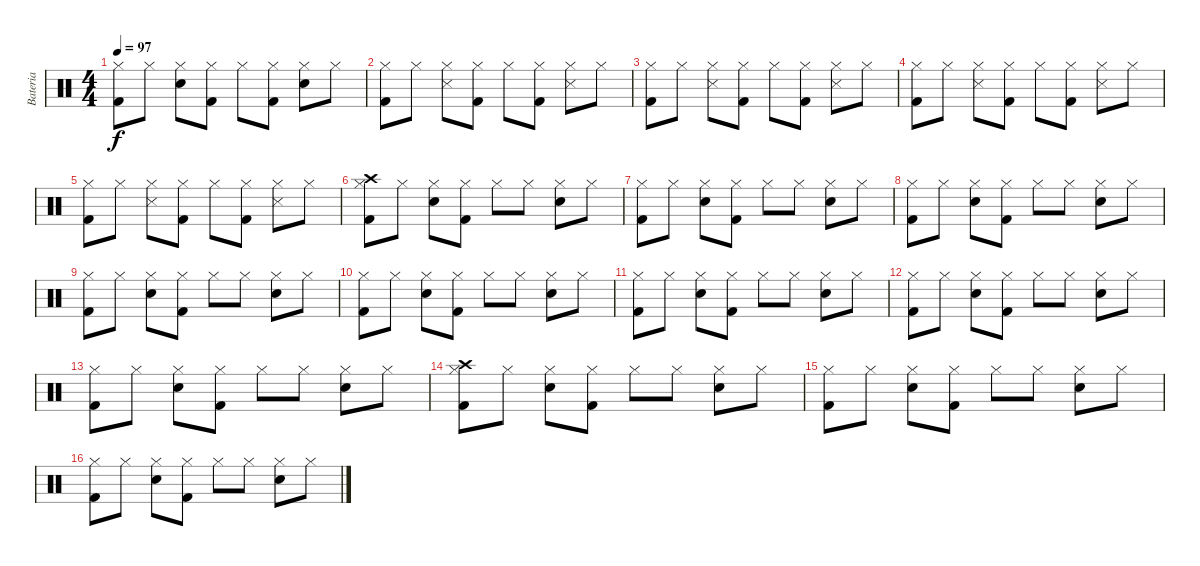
\track ("Bateria" "Bateria") {instrument percussion}
\staff {score}
\articulation defaults
\ts (4 4)
\tempo 97
\clef neutral
\ks c
("Kick (hit) 2" "Hi-Hat (closed)").8{dy f} "Hi-Hat (closed)".8 ("Snare (hit) 2" "Hi-Hat (closed)").8 ("Kick (hit) 2" "Hi-Hat (closed)").8 "Hi-Hat (closed)".8 ("Kick (hit) 2" "Hi-Hat (closed)").8 ("Snare (hit) 2" "Hi-Hat (closed)").8 "Hi-Hat (closed)".8 |
("Kick (hit) 2" "Hi-Hat (closed)").8 "Hi-Hat (closed)".8 ("Snare (side stick) 3" "Hi-Hat (closed)").8 ("Kick (hit) 2" "Hi-Hat (closed)").8 "Hi-Hat (closed)".8 ("Kick (hit) 2" "Hi-Hat (closed)").8 ("Snare (side stick) 3" "Hi-Hat (closed)").8 "Hi-Hat (closed)".8 |
("Kick (hit) 2" "Hi-Hat (closed)").8 "Hi-Hat (closed)".8 ("Snare (side stick) 3" "Hi-Hat (closed)").8 ("Kick (hit) 2" "Hi-Hat (closed)").8 "Hi-Hat (closed)".8 ("Kick (hit) 2" "Hi-Hat (closed)").8 ("Snare (side stick) 3" "Hi-Hat (closed)").8 "Hi-Hat (closed)".8 |
("Kick (hit) 2" "Hi-Hat (closed)").8 "Hi-Hat (closed)".8 ("Snare (side stick) 3" "Hi-Hat (closed)").8 ("Kick (hit) 2" "Hi-Hat (closed)").8 "Hi-Hat (closed)".8 ("Kick (hit) 2" "Hi-Hat (closed)").8 ("Snare (side stick) 3" "Hi-Hat (closed)").8 "Hi-Hat (closed)".8 |
("Kick (hit) 2" "Hi-Hat (closed)").8 "Hi-Hat (closed)".8 ("Snare (side stick) 3" "Hi-Hat (closed)").8 ("Kick (hit) 2" "Hi-Hat (closed)").8 "Hi-Hat (closed)".8 ("Kick (hit) 2" "Hi-Hat (closed)").8 ("Snare (side stick) 3" "Hi-Hat (closed)").8 "Hi-Hat (closed)".8 |
("Kick (hit) 2" "Hi-Hat (closed)" "Crash high (hit)").8 "Hi-Hat (closed)".8 ("Electric Snare (hit)" "Hi-Hat (closed)").8 ("Kick (hit) 2" "Hi-Hat (closed)").8 "Hi-Hat (closed)".8 "Hi-Hat (closed)".8 ("Electric Snare (hit)" "Hi-Hat (closed)").8 "Hi-Hat (closed)".8 |
("Kick (hit) 2" "Hi-Hat (closed)").8 "Hi-Hat (closed)".8 ("Electric Snare (hit)" "Hi-Hat (closed)").8 ("Kick (hit) 2" "Hi-Hat (closed)").8 "Hi-Hat (closed)".8 "Hi-Hat (closed)".8 ("Electric Snare (hit)" "Hi-Hat (closed)").8 "Hi-Hat (closed)".8 |
("Kick (hit) 2" "Hi-Hat (closed)").8 "Hi-Hat (closed)".8 ("Electric Snare (hit)" "Hi-Hat (closed)").8 ("Kick (hit) 2" "Hi-Hat (closed)").8 "Hi-Hat (closed)".8 "Hi-Hat (closed)".8 ("Electric Snare (hit)" "Hi-Hat (closed)").8 "Hi-Hat (closed)".8 |
("Kick (hit) 2" "Hi-Hat (closed)").8 "Hi-Hat (closed)".8 ("Electric Snare (hit)" "Hi-Hat (closed)").8 ("Kick (hit) 2" "Hi-Hat (closed)").8 "Hi-Hat (closed)".8 "Hi-Hat (closed)".8 ("Electric Snare (hit)" "Hi-Hat (closed)").8 "Hi-Hat (closed)".8 |
("Kick (hit) 2" "Hi-Hat (closed)").8 "Hi-Hat (closed)".8 ("Electric Snare (hit)" "Hi-Hat (closed)").8 ("Kick (hit) 2" "Hi-Hat (closed)").8 "Hi-Hat (closed)".8 "Hi-Hat (closed)".8 ("Electric Snare (hit)" "Hi-Hat (closed)").8 "Hi-Hat (closed)".8 |
("Kick (hit) 2" "Hi-Hat (closed)").8 "Hi-Hat (closed)".8 ("Electric Snare (hit)" "Hi-Hat (closed)").8 ("Kick (hit) 2" "Hi-Hat (closed)").8 "Hi-Hat (closed)".8 "Hi-Hat (closed)".8 ("Electric Snare (hit)" "Hi-Hat (closed)").8 "Hi-Hat (closed)".8 |
("Kick (hit) 2" "Hi-Hat (closed)").8 "Hi-Hat (closed)".8 ("Electric Snare (hit)" "Hi-Hat (closed)").8 ("Kick (hit) 2" "Hi-Hat (closed)").8 "Hi-Hat (closed)".8 "Hi-Hat (closed)".8 ("Electric Snare (hit)" "Hi-Hat (closed)").8 "Hi-Hat (closed)".8 |
("Kick (hit) 2" "Hi-Hat (closed)").8 "Hi-Hat (closed)".8 ("Electric Snare (hit)" "Hi-Hat (closed)").8 ("Kick (hit) 2" "Hi-Hat (closed)").8 "Hi-Hat (closed)".8 "Hi-Hat (closed)".8 ("Electric Snare (hit)" "Hi-Hat (closed)").8 "Hi-Hat (closed)".8 |
("Kick (hit) 2" "Hi-Hat (closed)" "Crash high (hit)").8 "Hi-Hat (closed)".8 ("Electric Snare (hit)" "Hi-Hat (closed)").8 ("Kick (hit) 2" "Hi-Hat (closed)").8 "Hi-Hat (closed)".8 "Hi-Hat (closed)".8 ("Electric Snare (hit)" "Hi-Hat (closed)").8 "Hi-Hat (closed)".8 |
("Kick (hit) 2" "Hi-Hat (closed)").8 "Hi-Hat (closed)".8 ("Electric Snare (hit)" "Hi-Hat (closed)").8 ("Kick (hit) 2" "Hi-Hat (closed)").8 "Hi-Hat (closed)".8 "Hi-Hat (closed)".8 ("Electric Snare (hit)" "Hi-Hat (closed)").8 "Hi-Hat (closed)".8 |
("Kick (hit) 2" "Hi-Hat (closed)").8 "Hi-Hat (closed)".8 ("Electric Snare (hit)" "Hi-Hat (closed)").8 ("Kick (hit) 2" "Hi-Hat (closed)").8 "Hi-Hat (closed)".8 "Hi-Hat (closed)".8 ("Electric Snare (hit)" "Hi-Hat (closed)").8 "Hi-Hat (closed)".8
